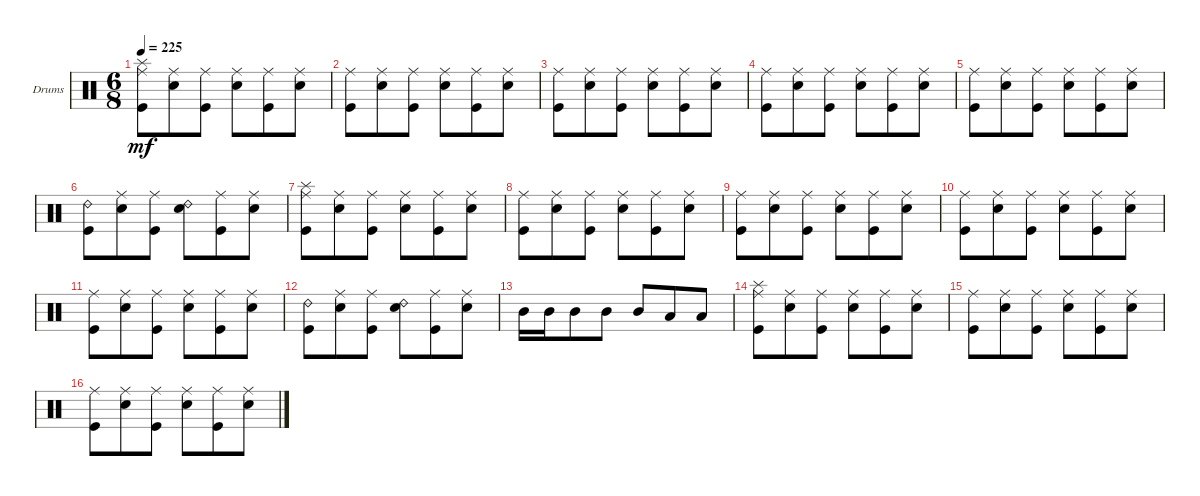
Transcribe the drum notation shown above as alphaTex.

\bracketExtendMode groupsimilarinstruments
\firstSystemTrackNameOrientation horizontal
\otherSystemsTrackNameOrientation horizontal
\track ("Drumkit" "Drums") {solo instrument percussion}
\staff {score}
\articulation defaults
\ts (6 8)
\tempo 225
\clef neutral
\ks c
("Kick (hit)" "Ride (middle)" "Splash (hit)").8{dy mf} ("Snare (hit) 2" "Ride (middle)").8 ("Kick (hit)" "Ride (middle)").8 ("Snare (hit) 2" "Ride (middle)").8 ("Kick (hit)" "Ride (middle)").8 ("Snare (hit) 2" "Ride (middle)").8 |
("Kick (hit)" "Ride (middle)").8 ("Snare (hit) 2" "Ride (middle)").8 ("Kick (hit)" "Ride (middle)").8 ("Snare (hit) 2" "Ride (middle)").8 ("Kick (hit)" "Ride (middle)").8 ("Snare (hit) 2" "Ride (middle)").8 |
("Kick (hit)" "Ride (middle)").8 ("Snare (hit) 2" "Ride (middle)").8 ("Kick (hit)" "Ride (middle)").8 ("Snare (hit) 2" "Ride (middle)").8 ("Kick (hit)" "Ride (middle)").8 ("Snare (hit) 2" "Ride (middle)").8 |
("Kick (hit)" "Ride (middle)").8 ("Snare (hit) 2" "Ride (middle)").8 ("Kick (hit)" "Ride (middle)").8 ("Snare (hit) 2" "Ride (middle)").8 ("Kick (hit)" "Ride (middle)").8 ("Snare (hit) 2" "Ride (middle)").8 |
("Kick (hit)" "Ride (middle)").8 ("Snare (hit) 2" "Ride (middle)").8 ("Kick (hit)" "Ride (middle)").8 ("Snare (hit) 2" "Ride (middle)").8 ("Kick (hit)" "Ride (middle)").8 ("Snare (hit) 2" "Ride (middle)").8 |
("Kick (hit)" "Ride (bell) 2").8 ("Snare (hit) 2" "Ride (middle)").8 ("Kick (hit)" "Ride (middle)").8 ("Snare (hit) 2" "Ride (bell) 2").8 ("Kick (hit)" "Ride (middle)").8 ("Snare (hit) 2" "Ride (middle)").8 |
("Kick (hit)" "Ride (middle)" "Splash (hit)").8 ("Snare (hit) 2" "Ride (middle)").8 ("Kick (hit)" "Ride (middle)").8 ("Snare (hit) 2" "Ride (middle)").8 ("Kick (hit)" "Ride (middle)").8 ("Snare (hit) 2" "Ride (middle)").8 |
("Kick (hit)" "Ride (middle)").8 ("Snare (hit) 2" "Ride (middle)").8 ("Kick (hit)" "Ride (middle)").8 ("Snare (hit) 2" "Ride (middle)").8 ("Kick (hit)" "Ride (middle)").8 ("Snare (hit) 2" "Ride (middle)").8 |
("Kick (hit)" "Ride (middle)").8 ("Snare (hit) 2" "Ride (middle)").8 ("Kick (hit)" "Ride (middle)").8 ("Snare (hit) 2" "Ride (middle)").8 ("Kick (hit)" "Ride (middle)").8 ("Snare (hit) 2" "Ride (middle)").8 |
("Kick (hit)" "Ride (middle)").8 ("Snare (hit) 2" "Ride (middle)").8 ("Kick (hit)" "Ride (middle)").8 ("Snare (hit) 2" "Ride (middle)").8 ("Kick (hit)" "Ride (middle)").8 ("Snare (hit) 2" "Ride (middle)").8 |
("Kick (hit)" "Ride (middle)").8 ("Snare (hit) 2" "Ride (middle)").8 ("Kick (hit)" "Ride (middle)").8 ("Snare (hit) 2" "Ride (middle)").8 ("Kick (hit)" "Ride (middle)").8 ("Snare (hit) 2" "Ride (middle)").8 |
("Kick (hit)" "Ride (bell) 2").8 ("Snare (hit) 2" "Ride (middle)").8 ("Kick (hit)" "Ride (middle)").8 ("Snare (hit) 2" "Ride (bell) 2").8 ("Kick (hit)" "Ride (middle)").8 ("Snare (hit) 2" "Ride (middle)").8 |
"Mid Tom (hit)".16 "Mid Tom (hit)".16 "Mid Tom (hit)".8 "Mid Tom (hit)".8 "Mid Tom (hit)".8 "Low Tom (hit)".8 "Low Tom (hit)".8 |
("Kick (hit)" "Ride (middle)" "Splash (hit)").8 ("Snare (hit) 2" "Ride (middle)").8 ("Kick (hit)" "Ride (middle)").8 ("Snare (hit) 2" "Ride (middle)").8 ("Kick (hit)" "Ride (middle)").8 ("Snare (hit) 2" "Ride (middle)").8 |
("Kick (hit)" "Ride (middle)").8 ("Snare (hit) 2" "Ride (middle)").8 ("Kick (hit)" "Ride (middle)").8 ("Snare (hit) 2" "Ride (middle)").8 ("Kick (hit)" "Ride (middle)").8 ("Snare (hit) 2" "Ride (middle)").8 |
("Kick (hit)" "Ride (middle)").8 ("Snare (hit) 2" "Ride (middle)").8 ("Kick (hit)" "Ride (middle)").8 ("Snare (hit) 2" "Ride (middle)").8 ("Kick (hit)" "Ride (middle)").8 ("Snare (hit) 2" "Ride (middle)").8
